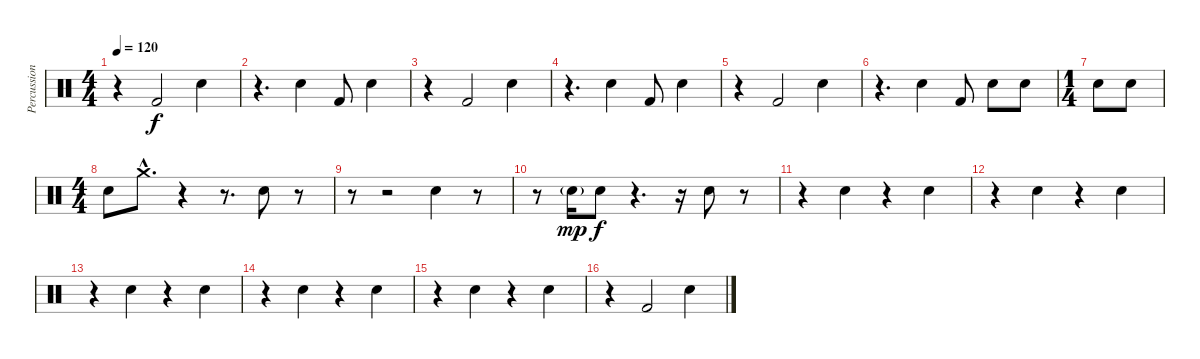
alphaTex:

\track ("Percussion(By Bela B.)" "Percussion") {instrument percussion}
\staff {score}
\articulation defaults
\ts (4 4)
\tempo 120
\clef neutral
\ks c
r.4{dy f} "Kick (hit) 2".2 "Snare (hit) 2".4 |
r.4{d} "Electric Snare (hit)".4 "Kick (hit) 2".8 "Snare (hit) 2".4 |
r.4 "Kick (hit) 2".2 "Snare (hit) 2".4 |
r.4{d} "Electric Snare (hit)".4 "Kick (hit) 2".8 "Snare (hit) 2".4 |
r.4 "Kick (hit) 2".2 "Snare (hit) 2".4 |
r.4{d} "Electric Snare (hit)".4 "Kick (hit) 2".8 "Snare (hit) 2".8 "Electric Snare (hit)".8 |
\ts (1 4)
"Electric Snare (hit)".8 "Electric Snare (hit)".8 |
\ts (4 4)
"Electric Snare (hit)".8 "Crash medium (hit)"{hac}.8{d} r.4 r.8{d} "Electric Snare (hit)".8 r.8 |
r.8 r.2 "Electric Snare (hit)".4 r.8 |
r.8 "Electric Snare (hit)"{g}.16{dy mp} "Electric Snare (hit)".8{dy f} r.4{d} r.16 "Electric Snare (hit)".8 r.8 |
r.4 "Electric Snare (hit)".4 r.4 "Electric Snare (hit)".4 |
r.4 "Electric Snare (hit)".4 r.4 "Electric Snare (hit)".4 |
r.4 "Electric Snare (hit)".4 r.4 "Electric Snare (hit)".4 |
r.4 "Electric Snare (hit)".4 r.4 "Electric Snare (hit)".4 |
r.4 "Electric Snare (hit)".4 r.4 "Electric Snare (hit)".4 |
r.4 "Kick (hit) 2".2 "Snare (hit) 2".4
